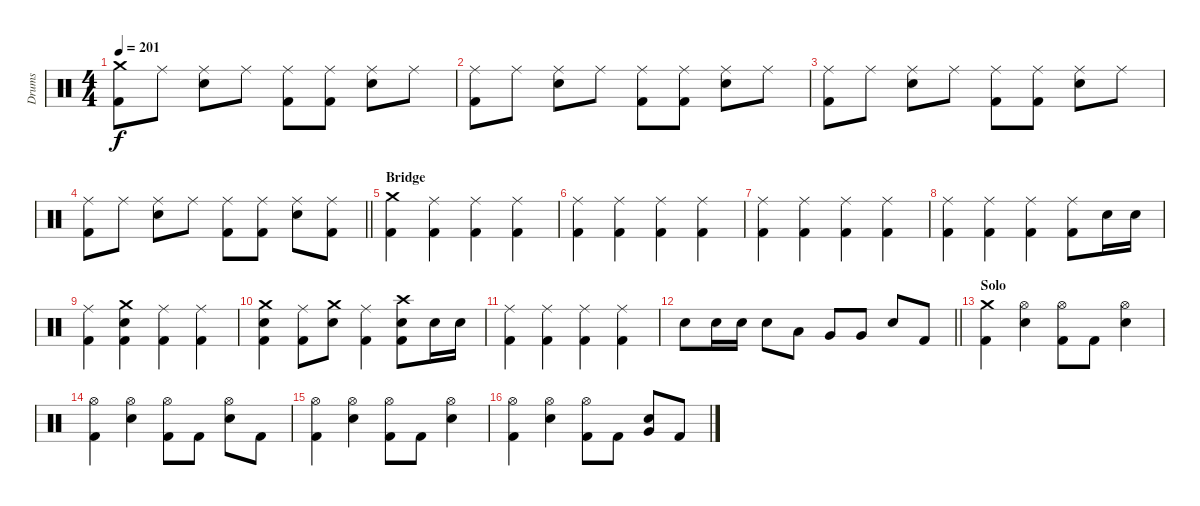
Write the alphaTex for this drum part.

\track ("Drums" "Drums") {instrument percussion}
\staff {score}
\articulation defaults
\ts (4 4)
\tempo 201
\clef neutral
\ks c
("Crash medium (hit)" "Kick (hit) 2").8{dy f} "Ride (middle)".8 ("Ride (middle)" "Electric Snare (hit)").8 "Ride (middle)".8 ("Ride (middle)" "Kick (hit) 2").8 ("Ride (middle)" "Kick (hit) 2").8 ("Ride (middle)" "Electric Snare (hit)").8 "Ride (middle)".8 |
("Ride (middle)" "Kick (hit) 2").8 "Ride (middle)".8 ("Ride (middle)" "Electric Snare (hit)").8 "Ride (middle)".8 ("Ride (middle)" "Kick (hit) 2").8 ("Ride (middle)" "Kick (hit) 2").8 ("Ride (middle)" "Electric Snare (hit)").8 "Ride (middle)".8 |
("Ride (middle)" "Kick (hit) 2").8 "Ride (middle)".8 ("Ride (middle)" "Electric Snare (hit)").8 "Ride (middle)".8 ("Ride (middle)" "Kick (hit) 2").8 ("Ride (middle)" "Kick (hit) 2").8 ("Ride (middle)" "Electric Snare (hit)").8 "Ride (middle)".8 |
\barLineRight lightlight
("Ride (middle)" "Kick (hit) 2").8 "Ride (middle)".8 ("Ride (middle)" "Electric Snare (hit)").8 "Ride (middle)".8 ("Ride (middle)" "Kick (hit) 2").8 ("Ride (middle)" "Kick (hit) 2").8 ("Ride (middle)" "Electric Snare (hit)").8 ("Ride (middle)" "Kick (hit) 2").8 |
\section ("" "Bridge")
("Crash medium (hit)" "Kick (hit) 2").4 ("Ride (middle)" "Kick (hit) 2").4 ("Ride (middle)" "Kick (hit) 2").4 ("Ride (middle)" "Kick (hit) 2").4 |
("Ride (middle)" "Kick (hit) 2").4 ("Ride (middle)" "Kick (hit) 2").4 ("Ride (middle)" "Kick (hit) 2").4 ("Ride (middle)" "Kick (hit) 2").4 |
("Ride (middle)" "Kick (hit) 2").4 ("Ride (middle)" "Kick (hit) 2").4 ("Ride (middle)" "Kick (hit) 2").4 ("Ride (middle)" "Kick (hit) 2").4 |
("Ride (middle)" "Kick (hit) 2").4 ("Ride (middle)" "Kick (hit) 2").4 ("Ride (middle)" "Kick (hit) 2").4 ("Ride (middle)" "Kick (hit) 2").8 "Electric Snare (hit)".16 "Electric Snare (hit)".16 |
("Ride (middle)" "Kick (hit) 2").4 ("Crash medium (hit)" "Electric Snare (hit)" "Kick (hit) 2").4 ("Ride (middle)" "Kick (hit) 2").4 ("Ride (middle)" "Kick (hit) 2").4 |
("Crash medium (hit)" "Electric Snare (hit)" "Kick (hit) 2").4 ("Ride (middle)" "Kick (hit) 2").8 ("Crash medium (hit)" "Electric Snare (hit)").8 ("Ride (middle)" "Kick (hit) 2").4 ("Crash high (hit)" "Electric Snare (hit)" "Kick (hit) 2").8 "Electric Snare (hit)".16 "Electric Snare (hit)".16 |
("Ride (middle)" "Kick (hit) 2").4 ("Ride (middle)" "Kick (hit) 2").4 ("Ride (middle)" "Kick (hit) 2").4 ("Ride (middle)" "Kick (hit) 2").4 |
\barLineRight lightlight "Electric Snare (hit)".8 "Electric Snare (hit)".16 "Electric Snare (hit)".16 "Electric Snare (hit)".8 "Low Tom (hit)".8 "Very Low Tom (hit)".8 "Very Low Tom (hit)".8 "Electric Snare (hit)".8 "Kick (hit) 2".8
|
\section ("" "Solo")
("Crash medium (hit)" "Kick (hit) 2").4 ("Hi-Hat (open)" "Electric Snare (hit)").4 ("Hi-Hat (open)" "Kick (hit) 2").8 "Kick (hit) 2".8 ("Hi-Hat (open)" "Electric Snare (hit)").4 |
("Hi-Hat (open)" "Kick (hit) 2").4 ("Hi-Hat (open)" "Electric Snare (hit)").4 ("Hi-Hat (open)" "Kick (hit) 2").8 "Kick (hit) 2".8 ("Hi-Hat (open)" "Electric Snare (hit)").8 "Kick (hit) 2".8 |
("Hi-Hat (open)" "Kick (hit) 2").4 ("Hi-Hat (open)" "Electric Snare (hit)").4 ("Hi-Hat (open)" "Kick (hit) 2").8 "Kick (hit) 2".8 ("Hi-Hat (open)" "Electric Snare (hit)").4 |
("Hi-Hat (open)" "Kick (hit) 2").4 ("Hi-Hat (open)" "Electric Snare (hit)").4 ("Hi-Hat (open)" "Kick (hit) 2").8 "Kick (hit) 2".8 ("Very Low Tom (hit)" "Electric Snare (hit)").8 "Kick (hit) 2".8
